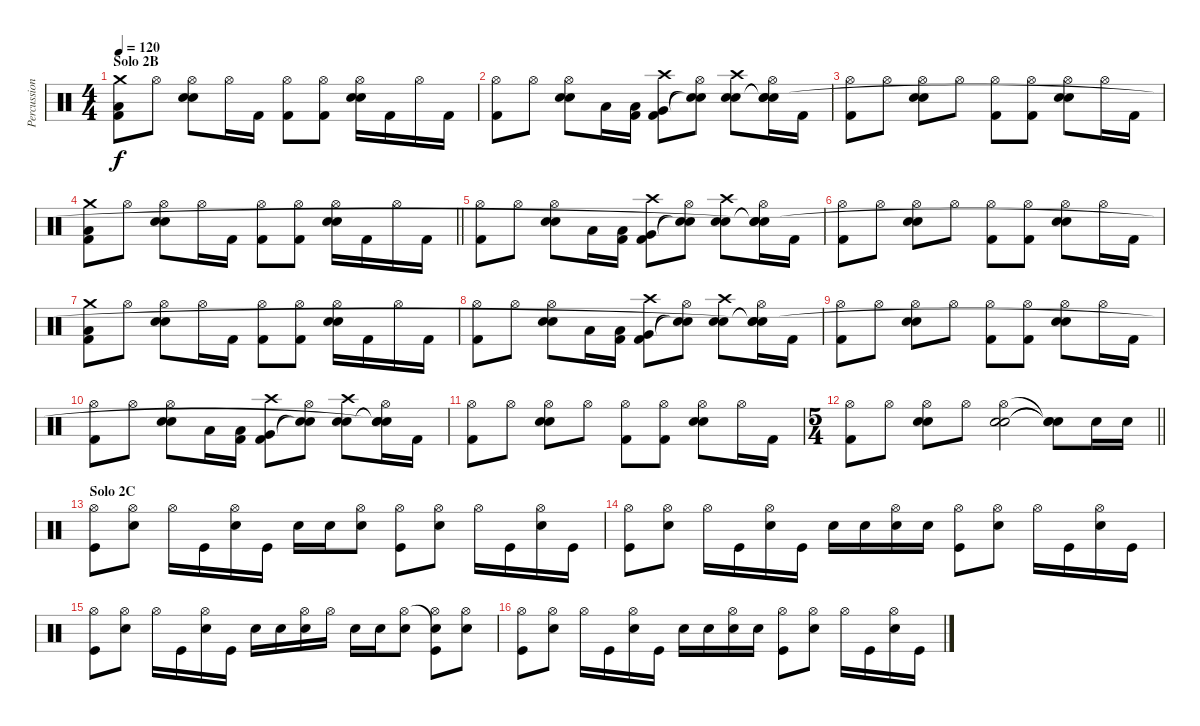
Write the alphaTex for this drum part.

\track ("Percussion" "Percussion") {instrument percussion}
\staff {score}
\articulation defaults
\ts (4 4)
\section ("" "Solo 2B")
\tempo 120
\clef neutral
\ks c
("Crash medium (hit)" "Low Floor Tom (hit)" "Kick (hit) 2").8{dy f} "Hi-Hat (open)".8 ("Hi-Hat (open)" "Snare (hit) 2" "Electric Snare (hit)").8 "Hi-Hat (open)".16 "Kick (hit) 2".16 ("Hi-Hat (open)" "Kick (hit) 2").8 ("Hi-Hat (open)" "Kick (hit) 2").8 ("Hi-Hat (open)" "Snare (hit) 2" "Electric Snare (hit)").16 "Kick (hit) 2".16 "Hi-Hat (open)".16 "Kick (hit) 2".16 |
("Hi-Hat (open)" "Kick (hit) 2").8 "Hi-Hat (open)".8 ("Hi-Hat (open)" "Snare (hit) 2" "Electric Snare (hit)").8 "Low Floor Tom (hit)".16 ("Low Floor Tom (hit)" "Kick (hit) 2").16 ("Crash high (hit)" "Very Low Tom (hit)" "Kick (hit) 2").8 ("Hi-Hat (open)" "Snare (hit)"{t} "Snare (hit)"{t}).8 ("Crash high (hit)" "Snare (hit) 2" "Electric Snare (hit)").8 ("Hi-Hat (open)" "Snare (hit)"{t} "Snare (hit)"{t} "Snare (hit)").16 "Kick (hit) 2".16 |
("Hi-Hat (open)" "Kick (hit) 2").8 "Hi-Hat (open)".8 ("Hi-Hat (open)" "Snare (hit) 2" "Electric Snare (hit)").8 "Hi-Hat (open)".8 ("Hi-Hat (open)" "Kick (hit) 2").8 ("Hi-Hat (open)" "Kick (hit) 2").8 ("Hi-Hat (open)" "Snare (hit) 2" "Electric Snare (hit)").8 "Hi-Hat (open)".16 "Kick (hit) 2".16 |
\barLineRight lightlight
("Crash medium (hit)" "Low Floor Tom (hit)" "Kick (hit) 2").8 "Hi-Hat (open)".8 ("Hi-Hat (open)" "Snare (hit) 2" "Electric Snare (hit)").8 "Hi-Hat (open)".16 "Kick (hit) 2".16 ("Hi-Hat (open)" "Kick (hit) 2").8 ("Hi-Hat (open)" "Kick (hit) 2").8 ("Hi-Hat (open)" "Snare (hit) 2" "Electric Snare (hit)").16 "Kick (hit) 2".16 "Hi-Hat (open)".16 "Kick (hit) 2".16 |
("Hi-Hat (open)" "Kick (hit) 2").8 "Hi-Hat (open)".8 ("Hi-Hat (open)" "Snare (hit) 2" "Electric Snare (hit)").8 "Low Floor Tom (hit)".16 ("Low Floor Tom (hit)" "Kick (hit) 2").16 ("Crash high (hit)" "Very Low Tom (hit)" "Kick (hit) 2").8 ("Hi-Hat (open)" "Snare (hit)"{t} "Snare (hit)"{t}).8 ("Crash high (hit)" "Snare (hit) 2" "Electric Snare (hit)").8 ("Hi-Hat (open)" "Snare (hit)"{t} "Snare (hit)"{t} "Snare (hit)"{t}).16 "Kick (hit) 2".16 |
("Hi-Hat (open)" "Kick (hit) 2").8 "Hi-Hat (open)".8 ("Hi-Hat (open)" "Snare (hit) 2" "Electric Snare (hit)").8 "Hi-Hat (open)".8 ("Hi-Hat (open)" "Kick (hit) 2").8 ("Hi-Hat (open)" "Kick (hit) 2").8 ("Hi-Hat (open)" "Snare (hit) 2" "Electric Snare (hit)").8 "Hi-Hat (open)".16 "Kick (hit) 2".16 |
("Crash medium (hit)" "Low Floor Tom (hit)" "Kick (hit) 2").8 "Hi-Hat (open)".8 ("Hi-Hat (open)" "Snare (hit) 2" "Electric Snare (hit)").8 "Hi-Hat (open)".16 "Kick (hit) 2".16 ("Hi-Hat (open)" "Kick (hit) 2").8 ("Hi-Hat (open)" "Kick (hit) 2").8 ("Hi-Hat (open)" "Snare (hit) 2" "Electric Snare (hit)").16 "Kick (hit) 2".16 "Hi-Hat (open)".16 "Kick (hit) 2".16 |
("Hi-Hat (open)" "Kick (hit) 2").8 "Hi-Hat (open)".8 ("Hi-Hat (open)" "Snare (hit) 2" "Electric Snare (hit)").8 "Low Floor Tom (hit)".16 ("Low Floor Tom (hit)" "Kick (hit) 2").16 ("Crash high (hit)" "Very Low Tom (hit)" "Kick (hit) 2").8 ("Hi-Hat (open)" "Snare (hit)"{t} "Snare (hit)"{t}).8 ("Crash high (hit)" "Snare (hit) 2" "Electric Snare (hit)").8 ("Hi-Hat (open)" "Snare (hit)"{t} "Snare (hit)"{t} "Snare (hit)"{t}).16 "Kick (hit) 2".16 |
("Hi-Hat (open)" "Kick (hit) 2").8 "Hi-Hat (open)".8 ("Hi-Hat (open)" "Snare (hit) 2" "Electric Snare (hit)").8 "Hi-Hat (open)".8 ("Hi-Hat (open)" "Kick (hit) 2").8 ("Hi-Hat (open)" "Kick (hit) 2").8 ("Hi-Hat (open)" "Snare (hit) 2" "Electric Snare (hit)").8 "Hi-Hat (open)".16 "Kick (hit) 2".16 |
("Hi-Hat (open)" "Kick (hit) 2").8 "Hi-Hat (open)".8 ("Hi-Hat (open)" "Snare (hit) 2" "Electric Snare (hit)").8 "Low Floor Tom (hit)".16 ("Low Floor Tom (hit)" "Kick (hit) 2").16 ("Crash high (hit)" "Very Low Tom (hit)" "Kick (hit) 2").8 ("Hi-Hat (open)" "Snare (hit)"{t} "Snare (hit)"{t}).8 ("Crash high (hit)" "Snare (hit) 2" "Electric Snare (hit)").8 ("Hi-Hat (open)" "Snare (hit)"{t} "Snare (hit)"{t} "Snare (hit)"{t}).16 "Kick (hit) 2".16 |
("Hi-Hat (open)" "Kick (hit) 2").8 "Hi-Hat (open)".8 ("Hi-Hat (open)" "Snare (hit) 2" "Electric Snare (hit)").8 "Hi-Hat (open)".8 ("Hi-Hat (open)" "Kick (hit) 2").8 ("Hi-Hat (open)" "Kick (hit) 2").8 ("Hi-Hat (open)" "Snare (hit) 2" "Electric Snare (hit)").8 "Hi-Hat (open)".16 "Kick (hit) 2".16 |
\ts (5 4)
\barLineRight lightlight
("Hi-Hat (open)" "Kick (hit) 2").8 "Hi-Hat (open)".8 ("Hi-Hat (open)" "Snare (hit) 2" "Electric Snare (hit)").8 "Hi-Hat (open)".8 ("Hi-Hat (open)" "Snare (hit) 2" "Electric Snare (hit)").2 ("Snare (hit)"{t} "Snare (hit)"{t} "Snare (hit)"{t}).8 "Electric Snare (hit)".16 "Electric Snare (hit)".16 |
\section ("" "Solo 2C")
("Hi-Hat (open)" "Kick (hit)").8 ("Hi-Hat (open)" "Electric Snare (hit)").8 "Hi-Hat (open)".16 "Kick (hit)".16 ("Hi-Hat (open)" "Electric Snare (hit)").16 "Kick (hit)".16 "Electric Snare (hit)".16 "Electric Snare (hit)".16 ("Electric Snare (hit)" "Hi-Hat (open)").8 ("Hi-Hat (open)" "Kick (hit)").8 ("Hi-Hat (open)" "Electric Snare (hit)").8 "Hi-Hat (open)".16 "Kick (hit)".16 ("Hi-Hat (open)" "Electric Snare (hit)").16 "Kick (hit)".16 |
("Hi-Hat (open)" "Kick (hit)").8 ("Hi-Hat (open)" "Electric Snare (hit)").8 "Hi-Hat (open)".16 "Kick (hit)".16 ("Hi-Hat (open)" "Electric Snare (hit)").16 "Kick (hit)".16 "Electric Snare (hit)".16 "Electric Snare (hit)".16 ("Electric Snare (hit)" "Hi-Hat (open)").16 "Electric Snare (hit)".16 ("Hi-Hat (open)" "Kick (hit)").8 ("Hi-Hat (open)" "Electric Snare (hit)").8 "Hi-Hat (open)".16 "Kick (hit)".16 ("Hi-Hat (open)" "Electric Snare (hit)").16 "Kick (hit)".16 |
("Hi-Hat (open)" "Kick (hit)").8 ("Hi-Hat (open)" "Electric Snare (hit)").8 "Hi-Hat (open)".16 "Kick (hit)".16 ("Hi-Hat (open)" "Electric Snare (hit)").16 "Kick (hit)".16 "Electric Snare (hit)".16 "Electric Snare (hit)".16 ("Electric Snare (hit)" "Hi-Hat (open)").16 "Hi-Hat (open)".16 "Electric Snare (hit)".16 "Electric Snare (hit)".16 ("Electric Snare (hit)" "Hi-Hat (open)").8 ("Hi-Hat (open)" "Snare (hit)"{t} "Kick (hit)").8 ("Hi-Hat (open)" "Electric Snare (hit)").8 |
("Hi-Hat (open)" "Kick (hit)").8 ("Hi-Hat (open)" "Electric Snare (hit)").8 "Hi-Hat (open)".16 "Kick (hit)".16 ("Hi-Hat (open)" "Electric Snare (hit)").16 "Kick (hit)".16 "Electric Snare (hit)".16 "Electric Snare (hit)".16 ("Electric Snare (hit)" "Hi-Hat (open)").16 "Electric Snare (hit)".16 ("Hi-Hat (open)" "Kick (hit)").8 ("Hi-Hat (open)" "Electric Snare (hit)").8 "Hi-Hat (open)".16 "Kick (hit)".16 ("Hi-Hat (open)" "Electric Snare (hit)").16 "Kick (hit)".16
